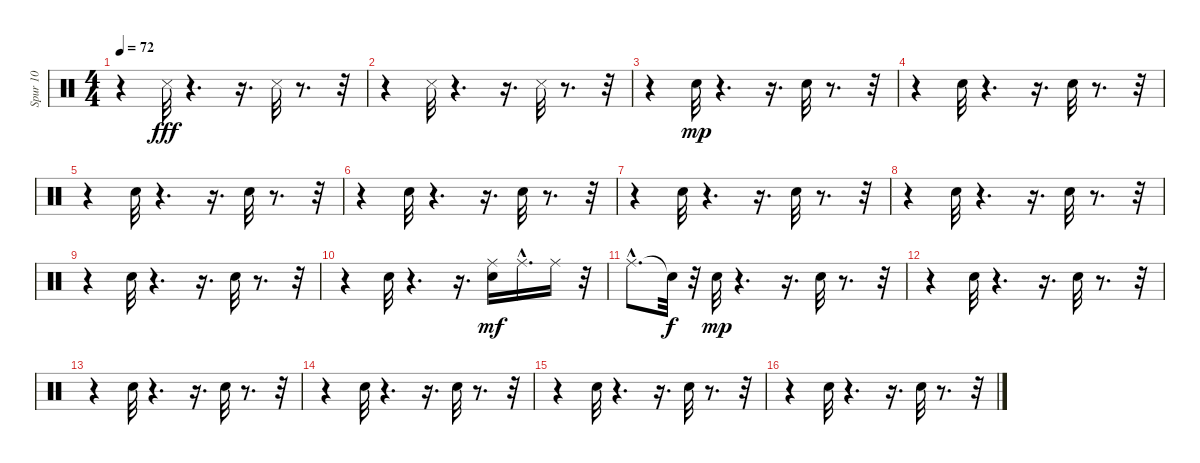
\track ("Spur 10" "Spur 10") {instrument percussion}
\staff {score}
\articulation defaults
\ts (4 4)
\tempo 72
\clef neutral
\ks c
r.4{dy fff} "Snare (side stick) 3".32 r.4{d} r.16{d} "Snare (side stick) 3".32 r.8{d} r.32 |
r.4 "Snare (side stick) 3".32 r.4{d} r.16{d} "Snare (side stick) 3".32 r.8{d} r.32 |
r.4 "Snare (hit) 2".32{dy mp} r.4{d} r.16{d} "Snare (hit) 2".32 r.8{d} r.32 |
r.4 "Snare (hit) 2".32 r.4{d} r.16{d} "Snare (hit) 2".32 r.8{d} r.32 |
r.4 "Snare (hit) 2".32 r.4{d} r.16{d} "Snare (hit) 2".32 r.8{d} r.32 |
r.4 "Snare (hit) 2".32 r.4{d} r.16{d} "Snare (hit) 2".32 r.8{d} r.32 |
r.4 "Snare (hit) 2".32 r.4{d} r.16{d} "Snare (hit) 2".32 r.8{d} r.32 |
r.4 "Snare (hit) 2".32 r.4{d} r.16{d} "Snare (hit) 2".32 r.8{d} r.32 |
r.4 "Snare (hit) 2".32 r.4{d} r.16{d} "Snare (hit) 2".32 r.8{d} r.32 |
r.4 "Snare (hit) 2".32 r.4{d} r.16{d} ("Snare (hit) 2" "Ride (middle)").16{dy mf} "Ride (middle)"{hac}.16{d} "Ride (middle)".16 r.32 |
"Ride (middle)"{hac}.8{d} "Snare (hit)"{t}.32{dy f} r.32 "Snare (hit) 2".32{dy mp} r.4{d} r.16{d} "Snare (hit) 2".32 r.8{d} r.32 |
r.4 "Snare (hit) 2".32 r.4{d} r.16{d} "Snare (hit) 2".32 r.8{d} r.32 |
r.4 "Snare (hit) 2".32 r.4{d} r.16{d} "Snare (hit) 2".32 r.8{d} r.32 |
r.4 "Snare (hit) 2".32 r.4{d} r.16{d} "Snare (hit) 2".32 r.8{d} r.32 |
r.4 "Snare (hit) 2".32 r.4{d} r.16{d} "Snare (hit) 2".32 r.8{d} r.32 |
r.4 "Snare (hit) 2".32 r.4{d} r.16{d} "Snare (hit) 2".32 r.8{d} r.32
